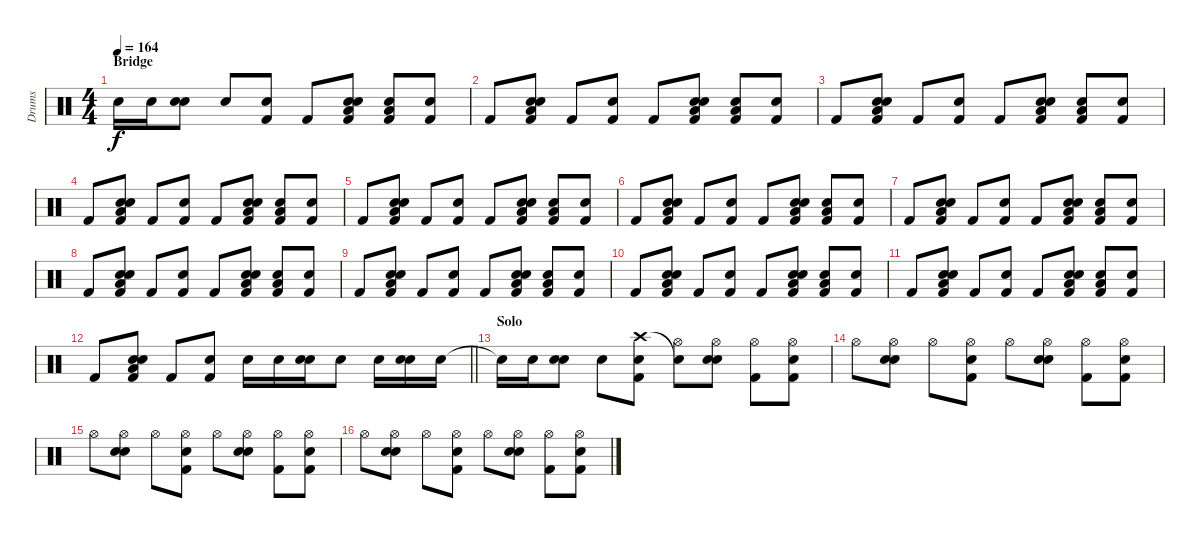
\track ("Drums" "Drums") {instrument percussion}
\staff {score}
\articulation defaults
\ts (4 4)
\section ("" "Bridge")
\tempo 164
\clef neutral
\ks c "Snare (hit) 2".16{dy f} "Snare (hit) 2".16
("Snare (hit) 2" "Hand Clap (hit)").8 "Snare (hit) 2".8 ("Kick (hit) 2" "Hand Clap (hit)").8 "Kick (hit) 2".8 ("Kick (hit) 2" "Low Floor Tom (hit)" "Snare (hit) 2" "Hand Clap (hit)").8 ("Kick (hit) 2" "Low Floor Tom (hit)" "Snare (hit) 2").8 ("Kick (hit) 2" "Hand Clap (hit)").8 |
"Kick (hit) 2".8 ("Kick (hit) 2" "Low Floor Tom (hit)" "Snare (hit) 2" "Hand Clap (hit)").8 "Kick (hit) 2".8 ("Kick (hit) 2" "Hand Clap (hit)").8 "Kick (hit) 2".8 ("Kick (hit) 2" "Low Floor Tom (hit)" "Snare (hit) 2" "Hand Clap (hit)").8 ("Kick (hit) 2" "Low Floor Tom (hit)" "Snare (hit) 2").8 ("Kick (hit) 2" "Hand Clap (hit)").8 |
"Kick (hit) 2".8 ("Kick (hit) 2" "Low Floor Tom (hit)" "Snare (hit) 2" "Hand Clap (hit)").8 "Kick (hit) 2".8 ("Kick (hit) 2" "Hand Clap (hit)").8 "Kick (hit) 2".8 ("Kick (hit) 2" "Low Floor Tom (hit)" "Snare (hit) 2" "Hand Clap (hit)").8 ("Kick (hit) 2" "Low Floor Tom (hit)" "Snare (hit) 2").8 ("Kick (hit) 2" "Hand Clap (hit)").8 |
"Kick (hit) 2".8 ("Kick (hit) 2" "Low Floor Tom (hit)" "Snare (hit) 2" "Hand Clap (hit)").8 "Kick (hit) 2".8 ("Kick (hit) 2" "Hand Clap (hit)").8 "Kick (hit) 2".8 ("Kick (hit) 2" "Low Floor Tom (hit)" "Snare (hit) 2" "Hand Clap (hit)").8 ("Kick (hit) 2" "Low Floor Tom (hit)" "Snare (hit) 2").8 ("Kick (hit) 2" "Hand Clap (hit)").8 |
"Kick (hit) 2".8 ("Kick (hit) 2" "Low Floor Tom (hit)" "Snare (hit) 2" "Hand Clap (hit)").8 "Kick (hit) 2".8 ("Kick (hit) 2" "Hand Clap (hit)").8 "Kick (hit) 2".8 ("Kick (hit) 2" "Low Floor Tom (hit)" "Snare (hit) 2" "Hand Clap (hit)").8 ("Kick (hit) 2" "Low Floor Tom (hit)" "Snare (hit) 2").8 ("Kick (hit) 2" "Hand Clap (hit)").8 |
"Kick (hit) 2".8 ("Kick (hit) 2" "Low Floor Tom (hit)" "Snare (hit) 2" "Hand Clap (hit)").8 "Kick (hit) 2".8 ("Kick (hit) 2" "Hand Clap (hit)").8 "Kick (hit) 2".8 ("Kick (hit) 2" "Low Floor Tom (hit)" "Snare (hit) 2" "Hand Clap (hit)").8 ("Kick (hit) 2" "Low Floor Tom (hit)" "Snare (hit) 2").8 ("Kick (hit) 2" "Hand Clap (hit)").8 |
"Kick (hit) 2".8 ("Kick (hit) 2" "Low Floor Tom (hit)" "Snare (hit) 2" "Hand Clap (hit)").8 "Kick (hit) 2".8 ("Kick (hit) 2" "Hand Clap (hit)").8 "Kick (hit) 2".8 ("Kick (hit) 2" "Low Floor Tom (hit)" "Snare (hit) 2" "Hand Clap (hit)").8 ("Kick (hit) 2" "Low Floor Tom (hit)" "Snare (hit) 2").8 ("Kick (hit) 2" "Hand Clap (hit)").8 |
"Kick (hit) 2".8 ("Kick (hit) 2" "Low Floor Tom (hit)" "Snare (hit) 2" "Hand Clap (hit)").8 "Kick (hit) 2".8 ("Kick (hit) 2" "Hand Clap (hit)").8 "Kick (hit) 2".8 ("Kick (hit) 2" "Low Floor Tom (hit)" "Snare (hit) 2" "Hand Clap (hit)").8 ("Kick (hit) 2" "Low Floor Tom (hit)" "Snare (hit) 2").8 ("Kick (hit) 2" "Hand Clap (hit)").8 |
"Kick (hit) 2".8 ("Kick (hit) 2" "Low Floor Tom (hit)" "Snare (hit) 2" "Hand Clap (hit)").8 "Kick (hit) 2".8 ("Kick (hit) 2" "Hand Clap (hit)").8 "Kick (hit) 2".8 ("Kick (hit) 2" "Low Floor Tom (hit)" "Snare (hit) 2" "Hand Clap (hit)").8 ("Kick (hit) 2" "Low Floor Tom (hit)" "Snare (hit) 2").8 ("Kick (hit) 2" "Hand Clap (hit)").8 |
"Kick (hit) 2".8 ("Kick (hit) 2" "Low Floor Tom (hit)" "Snare (hit) 2" "Hand Clap (hit)").8 "Kick (hit) 2".8 ("Kick (hit) 2" "Hand Clap (hit)").8 "Kick (hit) 2".8 ("Kick (hit) 2" "Low Floor Tom (hit)" "Snare (hit) 2" "Hand Clap (hit)").8 ("Kick (hit) 2" "Low Floor Tom (hit)" "Snare (hit) 2").8 ("Kick (hit) 2" "Hand Clap (hit)").8 |
"Kick (hit) 2".8 ("Kick (hit) 2" "Low Floor Tom (hit)" "Snare (hit) 2" "Hand Clap (hit)").8 "Kick (hit) 2".8 ("Kick (hit) 2" "Hand Clap (hit)").8 "Kick (hit) 2".8 ("Kick (hit) 2" "Low Floor Tom (hit)" "Snare (hit) 2" "Hand Clap (hit)").8 ("Kick (hit) 2" "Low Floor Tom (hit)" "Snare (hit) 2").8 ("Kick (hit) 2" "Hand Clap (hit)").8 |
\barLineRight lightlight "Kick (hit) 2".8
("Kick (hit) 2" "Low Floor Tom (hit)" "Snare (hit) 2" "Hand Clap (hit)").8 "Kick (hit) 2".8 ("Kick (hit) 2" "Hand Clap (hit)").8 "Snare (hit) 2".16 "Snare (hit) 2".16 ("Snare (hit) 2" "Hand Clap (hit)").16 "Snare (hit) 2".8 "Snare (hit) 2".16 ("Snare (hit) 2" "Hand Clap (hit)").16 "Snare (hit) 2".16 |
\section ("" "Solo")
"Snare (hit)"{t}.16 "Snare (hit) 2".16 ("Snare (hit) 2" "Hand Clap (hit)").8 "Snare (hit) 2".8 ("Kick (hit) 2" "Crash high (hit)" "Hand Clap (hit)").8 ("Hi-Hat (open)" "Snare (hit)"{t}).8 ("Snare (hit) 2" "Hi-Hat (open)" "Hand Clap (hit)").8 ("Kick (hit) 2" "Hi-Hat (open)").8 ("Kick (hit) 2" "Hi-Hat (open)" "Hand Clap (hit)").8 |
"Hi-Hat (open)".8 ("Snare (hit) 2" "Hi-Hat (open)" "Hand Clap (hit)").8 "Hi-Hat (open)".8 ("Kick (hit) 2" "Hi-Hat (open)" "Hand Clap (hit)").8 "Hi-Hat (open)".8 ("Snare (hit) 2" "Hi-Hat (open)" "Hand Clap (hit)").8 ("Kick (hit) 2" "Hi-Hat (open)").8 ("Kick (hit) 2" "Hi-Hat (open)" "Hand Clap (hit)").8 |
"Hi-Hat (open)".8 ("Snare (hit) 2" "Hi-Hat (open)" "Hand Clap (hit)").8 "Hi-Hat (open)".8 ("Kick (hit) 2" "Hi-Hat (open)" "Hand Clap (hit)").8 "Hi-Hat (open)".8 ("Snare (hit) 2" "Hi-Hat (open)" "Hand Clap (hit)").8 ("Kick (hit) 2" "Hi-Hat (open)").8 ("Kick (hit) 2" "Hi-Hat (open)" "Hand Clap (hit)").8 |
"Hi-Hat (open)".8 ("Snare (hit) 2" "Hi-Hat (open)" "Hand Clap (hit)").8 "Hi-Hat (open)".8 ("Kick (hit) 2" "Hi-Hat (open)" "Hand Clap (hit)").8 "Hi-Hat (open)".8 ("Snare (hit) 2" "Hi-Hat (open)" "Hand Clap (hit)").8 ("Kick (hit) 2" "Hi-Hat (open)").8 ("Kick (hit) 2" "Hi-Hat (open)" "Hand Clap (hit)").8
